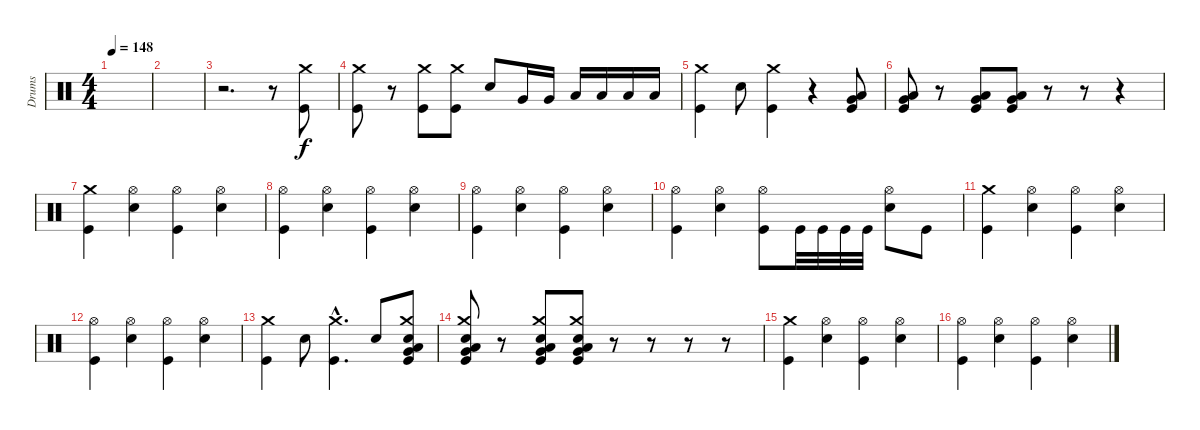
\track ("Drums" "Drums") {instrument percussion}
\staff {score}
\articulation defaults
\ts (4 4)
\tempo 148
\clef neutral
\ks c
|
|
r.2{d} r.8 ("Kick (hit)" "Crash medium (hit)").8 |
("Kick (hit)" "Crash medium (hit)").8 r.8 ("Kick (hit)" "Crash medium (hit)").8 ("Kick (hit)" "Crash medium (hit)").8 "Snare (hit) 2".8 "Very Low Tom (hit)".16 "Very Low Tom (hit)".16 "Low Floor Tom (hit)".16 "Low Floor Tom (hit)".16 "Low Floor Tom (hit)".16 "Low Floor Tom (hit)".16 |
("Kick (hit)" "Crash medium (hit)").4 "Snare (hit) 2".8 ("Kick (hit)" "Crash medium (hit)").4 r.4 ("Very Low Tom (hit)" "Low Floor Tom (hit)" "Kick (hit)").8 |
("Very Low Tom (hit)" "Low Floor Tom (hit)" "Kick (hit)").8 r.8 ("Very Low Tom (hit)" "Low Floor Tom (hit)" "Kick (hit)").8 ("Very Low Tom (hit)" "Low Floor Tom (hit)" "Kick (hit)").8 r.8 r.8 r.4 |
("Kick (hit)" "Crash medium (hit)").4 ("Snare (hit) 2" "Hi-Hat (open)").4 ("Kick (hit)" "Hi-Hat (open)").4 ("Snare (hit) 2" "Hi-Hat (open)").4 |
("Kick (hit)" "Hi-Hat (open)").4 ("Snare (hit) 2" "Hi-Hat (open)").4 ("Kick (hit)" "Hi-Hat (open)").4 ("Snare (hit) 2" "Hi-Hat (open)").4 |
("Kick (hit)" "Hi-Hat (open)").4 ("Snare (hit) 2" "Hi-Hat (open)").4 ("Kick (hit)" "Hi-Hat (open)").4 ("Snare (hit) 2" "Hi-Hat (open)").4 |
("Kick (hit)" "Hi-Hat (open)").4 ("Snare (hit) 2" "Hi-Hat (open)").4 ("Kick (hit)" "Hi-Hat (open)").8 "Kick (hit)".32 "Kick (hit)".32 "Kick (hit)".32 "Kick (hit)".32 ("Snare (hit) 2" "Hi-Hat (open)").8 "Kick (hit)".8 |
("Kick (hit)" "Crash medium (hit)").4 ("Snare (hit) 2" "Hi-Hat (open)").4 ("Kick (hit)" "Hi-Hat (open)").4 ("Snare (hit) 2" "Hi-Hat (open)").4 |
("Kick (hit)" "Hi-Hat (open)").4 ("Snare (hit) 2" "Hi-Hat (open)").4 ("Kick (hit)" "Hi-Hat (open)").4 ("Snare (hit) 2" "Hi-Hat (open)").4 |
("Crash medium (hit)" "Kick (hit)").4 "Snare (hit) 2".8 ("Crash medium (hit)"{hac} "Kick (hit)"{hac}).4{d} "Snare (hit) 2".8 ("Snare (hit) 2" "Crash medium (hit)" "Low Floor Tom (hit)" "Very Low Tom (hit)" "Kick (hit)").8 |
("Snare (hit) 2" "Crash medium (hit)" "Low Floor Tom (hit)" "Very Low Tom (hit)" "Kick (hit)").8 r.8 ("Snare (hit) 2" "Crash medium (hit)" "Low Floor Tom (hit)" "Very Low Tom (hit)" "Kick (hit)").8 ("Snare (hit) 2" "Crash medium (hit)" "Low Floor Tom (hit)" "Very Low Tom (hit)" "Kick (hit)").8 r.8 r.8 r.8 r.8 |
("Kick (hit)" "Crash medium (hit)").4 ("Snare (hit) 2" "Hi-Hat (open)").4 ("Kick (hit)" "Hi-Hat (open)").4 ("Snare (hit) 2" "Hi-Hat (open)").4 |
("Kick (hit)" "Hi-Hat (open)").4 ("Snare (hit) 2" "Hi-Hat (open)").4 ("Kick (hit)" "Hi-Hat (open)").4 ("Snare (hit) 2" "Hi-Hat (open)").4
